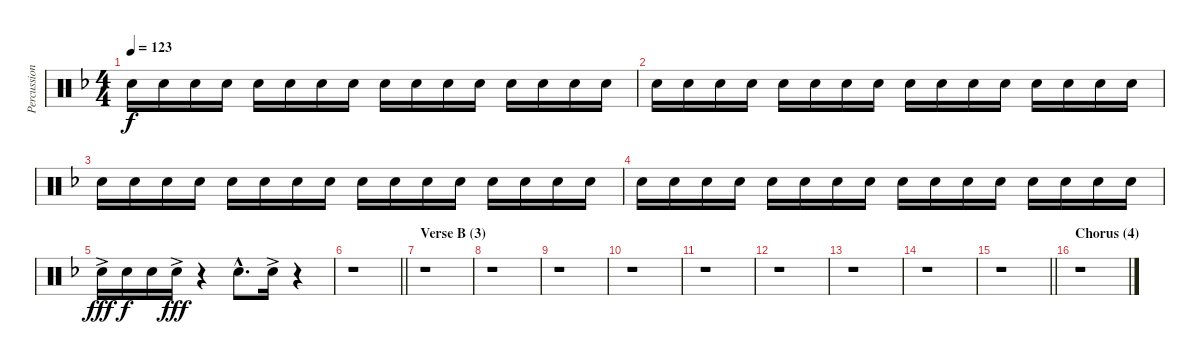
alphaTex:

\track ("Percussion" "Percussion") {instrument percussion}
\staff {score}
\articulation defaults
\ts (4 4)
\tempo 123
\clef neutral
\ks dminor "Hand Clap (hit)".16{dy f} "Hand Clap (hit)".16 "Hand Clap (hit)".16 "Hand Clap (hit)".16 "Hand Clap (hit)".16 "Hand Clap (hit)".16 "Hand Clap (hit)".16 "Hand Clap (hit)".16 "Hand Clap (hit)".16 "Hand Clap (hit)".16 "Hand Clap (hit)".16 "Hand Clap (hit)".16 "Hand Clap (hit)".16 "Hand Clap (hit)".16 "Hand Clap (hit)".16 "Hand Clap (hit)".16
|
"Hand Clap (hit)".16 "Hand Clap (hit)".16 "Hand Clap (hit)".16 "Hand Clap (hit)".16 "Hand Clap (hit)".16 "Hand Clap (hit)".16 "Hand Clap (hit)".16 "Hand Clap (hit)".16 "Hand Clap (hit)".16 "Hand Clap (hit)".16 "Hand Clap (hit)".16 "Hand Clap (hit)".16 "Hand Clap (hit)".16 "Hand Clap (hit)".16 "Hand Clap (hit)".16 "Hand Clap (hit)".16 |
"Hand Clap (hit)".16 "Hand Clap (hit)".16 "Hand Clap (hit)".16 "Hand Clap (hit)".16 "Hand Clap (hit)".16 "Hand Clap (hit)".16 "Hand Clap (hit)".16 "Hand Clap (hit)".16 "Hand Clap (hit)".16 "Hand Clap (hit)".16 "Hand Clap (hit)".16 "Hand Clap (hit)".16 "Hand Clap (hit)".16 "Hand Clap (hit)".16 "Hand Clap (hit)".16 "Hand Clap (hit)".16 |
"Hand Clap (hit)".16 "Hand Clap (hit)".16 "Hand Clap (hit)".16 "Hand Clap (hit)".16 "Hand Clap (hit)".16 "Hand Clap (hit)".16 "Hand Clap (hit)".16 "Hand Clap (hit)".16 "Hand Clap (hit)".16 "Hand Clap (hit)".16 "Hand Clap (hit)".16 "Hand Clap (hit)".16 "Hand Clap (hit)".16 "Hand Clap (hit)".16 "Hand Clap (hit)".16 "Hand Clap (hit)".16 |
"Hand Clap (hit)"{ac}.16{dy fff} "Hand Clap (hit)".16{dy f} "Hand Clap (hit)".16 "Hand Clap (hit)"{ac}.16{dy fff} r.4 "Hand Clap (hit)"{hac}.8{d} "Hand Clap (hit)"{ac}.16 r.4 |
\barLineRight lightlight
r.1 |
\section ("" "Verse B (3)")
r.1 |
r.1 |
r.1 |
r.1 |
r.1 |
r.1 |
r.1 |
r.1 |
\barLineRight lightlight
r.1 |
\section ("" "Chorus (4)")
r.1
